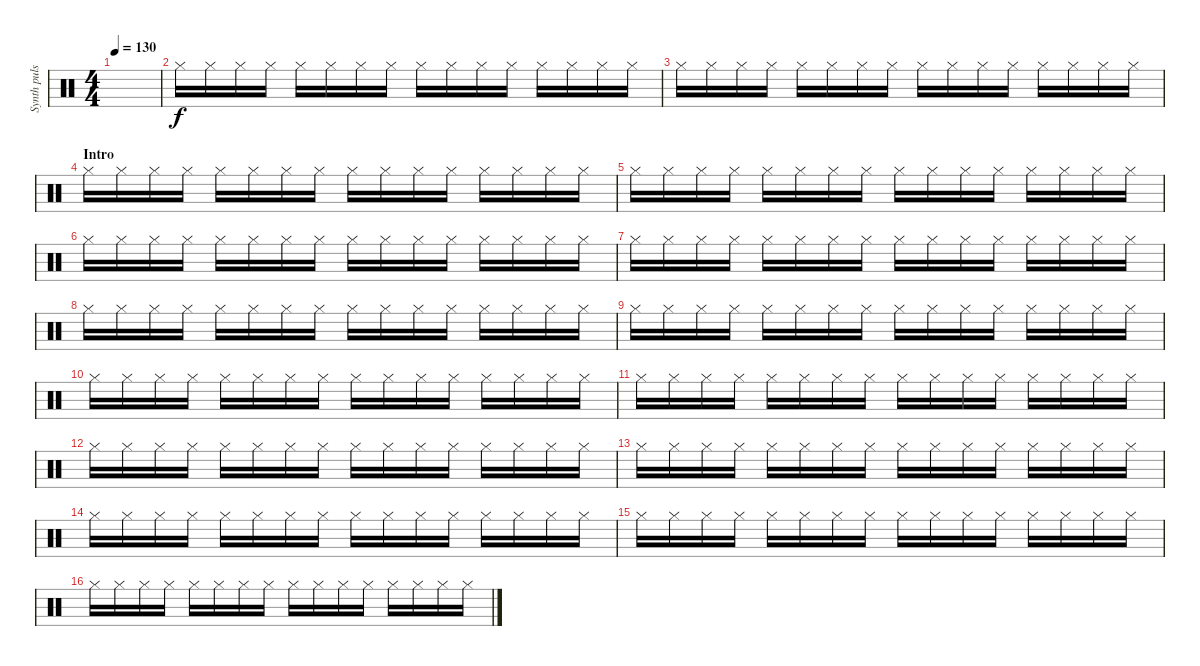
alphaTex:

\track ("Synth pulse perc" "Synth puls") {instrument percussion}
\staff {score}
\articulation defaults
\ts (4 4)
\tempo 130
\clef neutral
\ks c
|
"Hi-Hat (closed)".16 "Hi-Hat (closed)".16 "Hi-Hat (closed)".16 "Hi-Hat (closed)".16 "Hi-Hat (closed)".16 "Hi-Hat (closed)".16 "Hi-Hat (closed)".16 "Hi-Hat (closed)".16 "Hi-Hat (closed)".16 "Hi-Hat (closed)".16 "Hi-Hat (closed)".16 "Hi-Hat (closed)".16 "Hi-Hat (closed)".16 "Hi-Hat (closed)".16 "Hi-Hat (closed)".16 "Hi-Hat (closed)".16 |
"Hi-Hat (closed)".16 "Hi-Hat (closed)".16 "Hi-Hat (closed)".16 "Hi-Hat (closed)".16 "Hi-Hat (closed)".16 "Hi-Hat (closed)".16 "Hi-Hat (closed)".16 "Hi-Hat (closed)".16 "Hi-Hat (closed)".16 "Hi-Hat (closed)".16 "Hi-Hat (closed)".16 "Hi-Hat (closed)".16 "Hi-Hat (closed)".16 "Hi-Hat (closed)".16 "Hi-Hat (closed)".16 "Hi-Hat (closed)".16 |
\section ("" "Intro")
"Hi-Hat (closed)".16 "Hi-Hat (closed)".16 "Hi-Hat (closed)".16 "Hi-Hat (closed)".16 "Hi-Hat (closed)".16 "Hi-Hat (closed)".16 "Hi-Hat (closed)".16 "Hi-Hat (closed)".16 "Hi-Hat (closed)".16 "Hi-Hat (closed)".16 "Hi-Hat (closed)".16 "Hi-Hat (closed)".16 "Hi-Hat (closed)".16 "Hi-Hat (closed)".16 "Hi-Hat (closed)".16 "Hi-Hat (closed)".16 |
"Hi-Hat (closed)".16 "Hi-Hat (closed)".16 "Hi-Hat (closed)".16 "Hi-Hat (closed)".16 "Hi-Hat (closed)".16 "Hi-Hat (closed)".16 "Hi-Hat (closed)".16 "Hi-Hat (closed)".16 "Hi-Hat (closed)".16 "Hi-Hat (closed)".16 "Hi-Hat (closed)".16 "Hi-Hat (closed)".16 "Hi-Hat (closed)".16 "Hi-Hat (closed)".16 "Hi-Hat (closed)".16 "Hi-Hat (closed)".16 |
"Hi-Hat (closed)".16 "Hi-Hat (closed)".16 "Hi-Hat (closed)".16 "Hi-Hat (closed)".16 "Hi-Hat (closed)".16 "Hi-Hat (closed)".16 "Hi-Hat (closed)".16 "Hi-Hat (closed)".16 "Hi-Hat (closed)".16 "Hi-Hat (closed)".16 "Hi-Hat (closed)".16 "Hi-Hat (closed)".16 "Hi-Hat (closed)".16 "Hi-Hat (closed)".16 "Hi-Hat (closed)".16 "Hi-Hat (closed)".16 |
"Hi-Hat (closed)".16 "Hi-Hat (closed)".16 "Hi-Hat (closed)".16 "Hi-Hat (closed)".16 "Hi-Hat (closed)".16 "Hi-Hat (closed)".16 "Hi-Hat (closed)".16 "Hi-Hat (closed)".16 "Hi-Hat (closed)".16 "Hi-Hat (closed)".16 "Hi-Hat (closed)".16 "Hi-Hat (closed)".16 "Hi-Hat (closed)".16 "Hi-Hat (closed)".16 "Hi-Hat (closed)".16 "Hi-Hat (closed)".16 |
"Hi-Hat (closed)".16 "Hi-Hat (closed)".16 "Hi-Hat (closed)".16 "Hi-Hat (closed)".16 "Hi-Hat (closed)".16 "Hi-Hat (closed)".16 "Hi-Hat (closed)".16 "Hi-Hat (closed)".16 "Hi-Hat (closed)".16 "Hi-Hat (closed)".16 "Hi-Hat (closed)".16 "Hi-Hat (closed)".16 "Hi-Hat (closed)".16 "Hi-Hat (closed)".16 "Hi-Hat (closed)".16 "Hi-Hat (closed)".16 |
"Hi-Hat (closed)".16 "Hi-Hat (closed)".16 "Hi-Hat (closed)".16 "Hi-Hat (closed)".16 "Hi-Hat (closed)".16 "Hi-Hat (closed)".16 "Hi-Hat (closed)".16 "Hi-Hat (closed)".16 "Hi-Hat (closed)".16 "Hi-Hat (closed)".16 "Hi-Hat (closed)".16 "Hi-Hat (closed)".16 "Hi-Hat (closed)".16 "Hi-Hat (closed)".16 "Hi-Hat (closed)".16 "Hi-Hat (closed)".16 |
"Hi-Hat (closed)".16 "Hi-Hat (closed)".16 "Hi-Hat (closed)".16 "Hi-Hat (closed)".16 "Hi-Hat (closed)".16 "Hi-Hat (closed)".16 "Hi-Hat (closed)".16 "Hi-Hat (closed)".16 "Hi-Hat (closed)".16 "Hi-Hat (closed)".16 "Hi-Hat (closed)".16 "Hi-Hat (closed)".16 "Hi-Hat (closed)".16 "Hi-Hat (closed)".16 "Hi-Hat (closed)".16 "Hi-Hat (closed)".16 |
"Hi-Hat (closed)".16 "Hi-Hat (closed)".16 "Hi-Hat (closed)".16 "Hi-Hat (closed)".16 "Hi-Hat (closed)".16 "Hi-Hat (closed)".16 "Hi-Hat (closed)".16 "Hi-Hat (closed)".16 "Hi-Hat (closed)".16 "Hi-Hat (closed)".16 "Hi-Hat (closed)".16 "Hi-Hat (closed)".16 "Hi-Hat (closed)".16 "Hi-Hat (closed)".16 "Hi-Hat (closed)".16 "Hi-Hat (closed)".16 |
"Hi-Hat (closed)".16 "Hi-Hat (closed)".16 "Hi-Hat (closed)".16 "Hi-Hat (closed)".16 "Hi-Hat (closed)".16 "Hi-Hat (closed)".16 "Hi-Hat (closed)".16 "Hi-Hat (closed)".16 "Hi-Hat (closed)".16 "Hi-Hat (closed)".16 "Hi-Hat (closed)".16 "Hi-Hat (closed)".16 "Hi-Hat (closed)".16 "Hi-Hat (closed)".16 "Hi-Hat (closed)".16 "Hi-Hat (closed)".16 |
"Hi-Hat (closed)".16 "Hi-Hat (closed)".16 "Hi-Hat (closed)".16 "Hi-Hat (closed)".16 "Hi-Hat (closed)".16 "Hi-Hat (closed)".16 "Hi-Hat (closed)".16 "Hi-Hat (closed)".16 "Hi-Hat (closed)".16 "Hi-Hat (closed)".16 "Hi-Hat (closed)".16 "Hi-Hat (closed)".16 "Hi-Hat (closed)".16 "Hi-Hat (closed)".16 "Hi-Hat (closed)".16 "Hi-Hat (closed)".16 |
"Hi-Hat (closed)".16 "Hi-Hat (closed)".16 "Hi-Hat (closed)".16 "Hi-Hat (closed)".16 "Hi-Hat (closed)".16 "Hi-Hat (closed)".16 "Hi-Hat (closed)".16 "Hi-Hat (closed)".16 "Hi-Hat (closed)".16 "Hi-Hat (closed)".16 "Hi-Hat (closed)".16 "Hi-Hat (closed)".16 "Hi-Hat (closed)".16 "Hi-Hat (closed)".16 "Hi-Hat (closed)".16 "Hi-Hat (closed)".16 |
"Hi-Hat (closed)".16 "Hi-Hat (closed)".16 "Hi-Hat (closed)".16 "Hi-Hat (closed)".16 "Hi-Hat (closed)".16 "Hi-Hat (closed)".16 "Hi-Hat (closed)".16 "Hi-Hat (closed)".16 "Hi-Hat (closed)".16 "Hi-Hat (closed)".16 "Hi-Hat (closed)".16 "Hi-Hat (closed)".16 "Hi-Hat (closed)".16 "Hi-Hat (closed)".16 "Hi-Hat (closed)".16 "Hi-Hat (closed)".16 |
"Hi-Hat (closed)".16 "Hi-Hat (closed)".16 "Hi-Hat (closed)".16 "Hi-Hat (closed)".16 "Hi-Hat (closed)".16 "Hi-Hat (closed)".16 "Hi-Hat (closed)".16 "Hi-Hat (closed)".16 "Hi-Hat (closed)".16 "Hi-Hat (closed)".16 "Hi-Hat (closed)".16 "Hi-Hat (closed)".16 "Hi-Hat (closed)".16 "Hi-Hat (closed)".16 "Hi-Hat (closed)".16 "Hi-Hat (closed)".16
